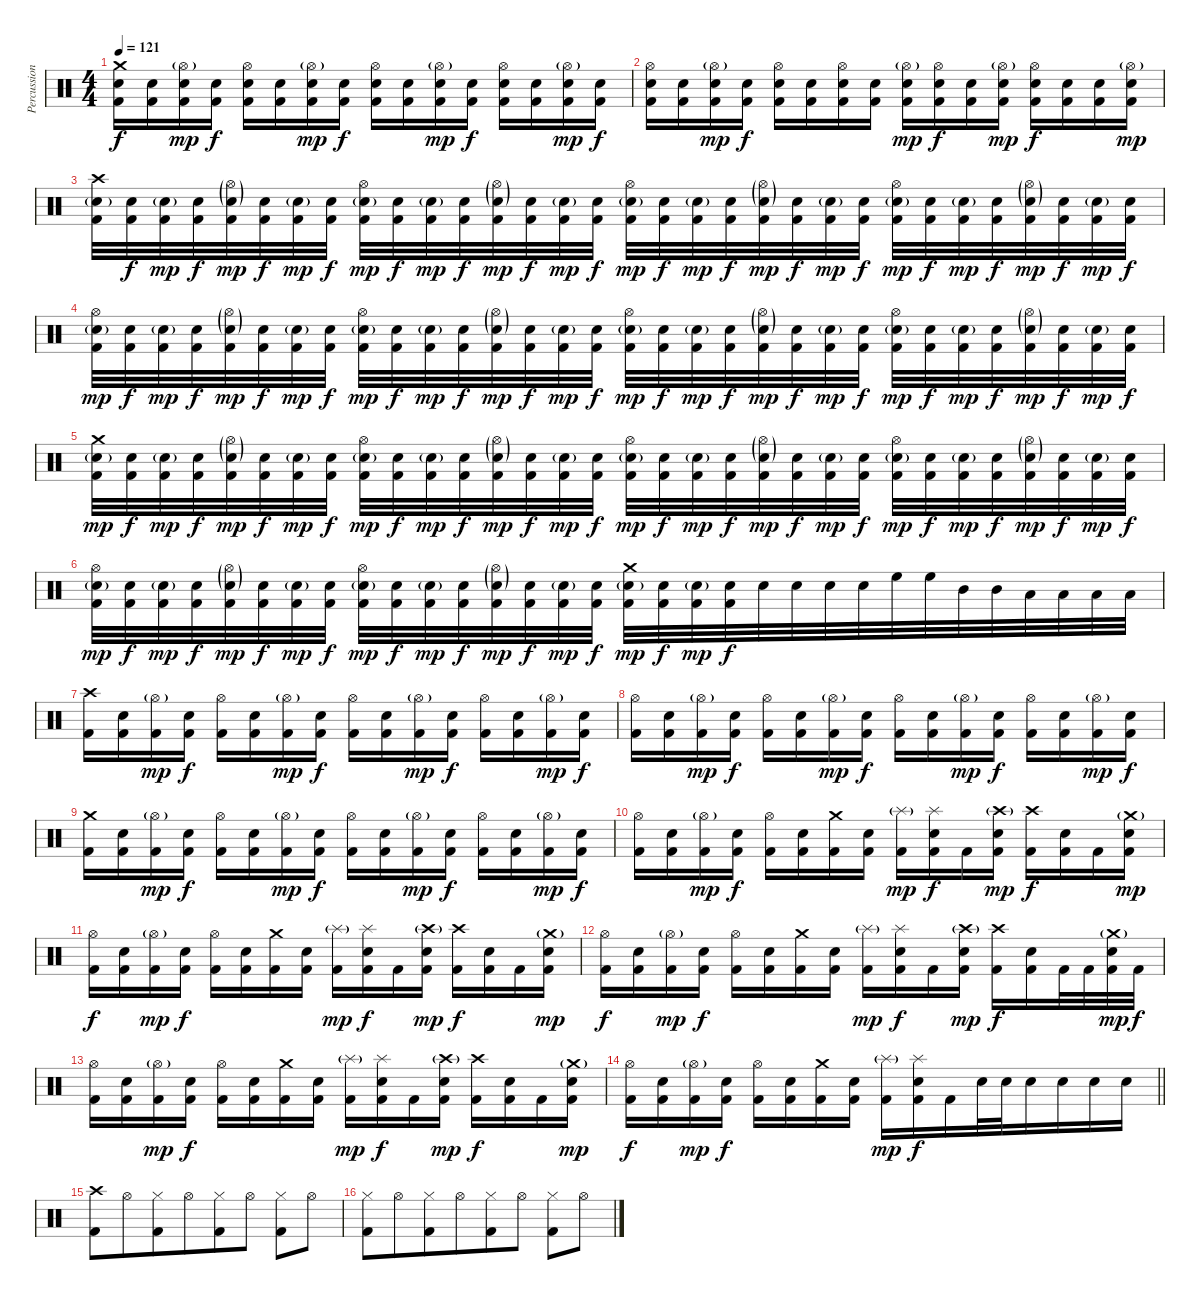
\track ("Percussion" "Percussion") {instrument percussion}
\staff {score}
\articulation defaults
\ts (4 4)
\tempo 121
\clef neutral
\ks c
("Crash medium (hit)" "Electric Snare (hit)" "Kick (hit) 2").16{dy f} ("Electric Snare (hit)" "Kick (hit) 2").16{beam merge} ("Hi-Hat (open)"{g} "Electric Snare (hit)" "Kick (hit) 2").16{dy mp beam merge} ("Electric Snare (hit)" "Kick (hit) 2").16{dy f} ("Hi-Hat (open)" "Electric Snare (hit)" "Kick (hit) 2").16 ("Electric Snare (hit)" "Kick (hit) 2").16 ("Hi-Hat (open)"{g} "Electric Snare (hit)" "Kick (hit) 2").16{dy mp beam merge} ("Electric Snare (hit)" "Kick (hit) 2").16{dy f} ("Hi-Hat (open)" "Electric Snare (hit)" "Kick (hit) 2").16 ("Electric Snare (hit)" "Kick (hit) 2").16{beam merge} ("Hi-Hat (open)"{g} "Electric Snare (hit)" "Kick (hit) 2").16{dy mp beam merge} ("Electric Snare (hit)" "Kick (hit) 2").16{dy f} ("Hi-Hat (open)" "Electric Snare (hit)" "Kick (hit) 2").16 ("Electric Snare (hit)" "Kick (hit) 2").16 ("Hi-Hat (open)"{g} "Electric Snare (hit)" "Kick (hit) 2").16{dy mp beam merge} ("Electric Snare (hit)" "Kick (hit) 2").16{dy f} |
("Hi-Hat (open)" "Electric Snare (hit)" "Kick (hit) 2").16 ("Electric Snare (hit)" "Kick (hit) 2").16{beam merge} ("Hi-Hat (open)"{g} "Electric Snare (hit)" "Kick (hit) 2").16{dy mp beam merge} ("Electric Snare (hit)" "Kick (hit) 2").16{dy f} ("Hi-Hat (open)" "Electric Snare (hit)" "Kick (hit) 2").16 ("Electric Snare (hit)" "Kick (hit) 2").16 ("Hi-Hat (open)" "Electric Snare (hit)" "Kick (hit) 2").16{beam merge} ("Electric Snare (hit)" "Kick (hit) 2").16 ("Hi-Hat (open)"{g} "Electric Snare (hit)" "Kick (hit) 2").16{dy mp} ("Hi-Hat (open)" "Electric Snare (hit)" "Kick (hit) 2").16{dy f beam merge} ("Electric Snare (hit)" "Kick (hit) 2").16{beam merge} ("Hi-Hat (open)"{g} "Electric Snare (hit)" "Kick (hit) 2").16{dy mp} ("Hi-Hat (open)" "Electric Snare (hit)" "Kick (hit) 2").16{dy f} ("Electric Snare (hit)" "Kick (hit) 2").16 ("Electric Snare (hit)" "Kick (hit) 2").16{beam merge} ("Hi-Hat (open)"{g} "Electric Snare (hit)" "Kick (hit) 2").16{dy mp} |
("Crash high (hit)" "Electric Snare (hit)"{g} "Kick (hit) 2").32 ("Electric Snare (hit)" "Kick (hit) 2").32{dy f} ("Electric Snare (hit)"{g} "Kick (hit) 2").32{dy mp} ("Electric Snare (hit)" "Kick (hit) 2").32{dy f beam merge} ("Hi-Hat (open)"{g} "Electric Snare (hit)"{g} "Kick (hit) 2").32{dy mp beam merge} ("Electric Snare (hit)" "Kick (hit) 2").32{dy f beam merge} ("Electric Snare (hit)"{g} "Kick (hit) 2").32{dy mp} ("Electric Snare (hit)" "Kick (hit) 2").32{dy f} ("Hi-Hat (open)" "Electric Snare (hit)"{g} "Kick (hit) 2").32{dy mp} ("Electric Snare (hit)" "Kick (hit) 2").32{dy f} ("Electric Snare (hit)"{g} "Kick (hit) 2").32{dy mp} ("Electric Snare (hit)" "Kick (hit) 2").32{dy f} ("Hi-Hat (open)"{g} "Electric Snare (hit)"{g} "Kick (hit) 2").32{dy mp} ("Electric Snare (hit)" "Kick (hit) 2").32{dy f beam merge} ("Electric Snare (hit)"{g} "Kick (hit) 2").32{dy mp} ("Electric Snare (hit)" "Kick (hit) 2").32{dy f} ("Hi-Hat (open)" "Electric Snare (hit)"{g} "Kick (hit) 2").32{dy mp} ("Electric Snare (hit)" "Kick (hit) 2").32{dy f} ("Electric Snare (hit)"{g} "Kick (hit) 2").32{dy mp} ("Electric Snare (hit)" "Kick (hit) 2").32{dy f beam merge} ("Hi-Hat (open)"{g} "Electric Snare (hit)"{g} "Kick (hit) 2").32{dy mp beam merge} ("Electric Snare (hit)" "Kick (hit) 2").32{dy f beam merge} ("Electric Snare (hit)"{g} "Kick (hit) 2").32{dy mp beam merge} ("Electric Snare (hit)" "Kick (hit) 2").32{dy f} ("Hi-Hat (open)" "Electric Snare (hit)"{g} "Kick (hit) 2").32{dy mp} ("Electric Snare (hit)" "Kick (hit) 2").32{dy f} ("Electric Snare (hit)"{g} "Kick (hit) 2").32{dy mp beam merge} ("Electric Snare (hit)" "Kick (hit) 2").32{dy f} ("Hi-Hat (open)"{g} "Electric Snare (hit)"{g} "Kick (hit) 2").32{dy mp beam merge} ("Electric Snare (hit)" "Kick (hit) 2").32{dy f beam merge} ("Electric Snare (hit)"{g} "Kick (hit) 2").32{dy mp beam merge} ("Electric Snare (hit)" "Kick (hit) 2").32{dy f} |
("Hi-Hat (open)" "Electric Snare (hit)"{g} "Kick (hit) 2").32{dy mp} ("Electric Snare (hit)" "Kick (hit) 2").32{dy f} ("Electric Snare (hit)"{g} "Kick (hit) 2").32{dy mp} ("Electric Snare (hit)" "Kick (hit) 2").32{dy f beam merge} ("Hi-Hat (open)"{g} "Electric Snare (hit)"{g} "Kick (hit) 2").32{dy mp beam merge} ("Electric Snare (hit)" "Kick (hit) 2").32{dy f beam merge} ("Electric Snare (hit)"{g} "Kick (hit) 2").32{dy mp} ("Electric Snare (hit)" "Kick (hit) 2").32{dy f} ("Hi-Hat (open)" "Electric Snare (hit)"{g} "Kick (hit) 2").32{dy mp} ("Electric Snare (hit)" "Kick (hit) 2").32{dy f} ("Electric Snare (hit)"{g} "Kick (hit) 2").32{dy mp} ("Electric Snare (hit)" "Kick (hit) 2").32{dy f} ("Hi-Hat (open)"{g} "Electric Snare (hit)"{g} "Kick (hit) 2").32{dy mp} ("Electric Snare (hit)" "Kick (hit) 2").32{dy f beam merge} ("Electric Snare (hit)"{g} "Kick (hit) 2").32{dy mp} ("Electric Snare (hit)" "Kick (hit) 2").32{dy f} ("Hi-Hat (open)" "Electric Snare (hit)"{g} "Kick (hit) 2").32{dy mp} ("Electric Snare (hit)" "Kick (hit) 2").32{dy f} ("Electric Snare (hit)"{g} "Kick (hit) 2").32{dy mp} ("Electric Snare (hit)" "Kick (hit) 2").32{dy f beam merge} ("Hi-Hat (open)"{g} "Electric Snare (hit)"{g} "Kick (hit) 2").32{dy mp beam merge} ("Electric Snare (hit)" "Kick (hit) 2").32{dy f beam merge} ("Electric Snare (hit)"{g} "Kick (hit) 2").32{dy mp beam merge} ("Electric Snare (hit)" "Kick (hit) 2").32{dy f} ("Hi-Hat (open)" "Electric Snare (hit)"{g} "Kick (hit) 2").32{dy mp} ("Electric Snare (hit)" "Kick (hit) 2").32{dy f} ("Electric Snare (hit)"{g} "Kick (hit) 2").32{dy mp beam merge} ("Electric Snare (hit)" "Kick (hit) 2").32{dy f} ("Hi-Hat (open)"{g} "Electric Snare (hit)"{g} "Kick (hit) 2").32{dy mp beam merge} ("Electric Snare (hit)" "Kick (hit) 2").32{dy f beam merge} ("Electric Snare (hit)"{g} "Kick (hit) 2").32{dy mp beam merge} ("Electric Snare (hit)" "Kick (hit) 2").32{dy f} |
("Crash medium (hit)" "Electric Snare (hit)"{g} "Kick (hit) 2").32{dy mp} ("Electric Snare (hit)" "Kick (hit) 2").32{dy f} ("Electric Snare (hit)"{g} "Kick (hit) 2").32{dy mp} ("Electric Snare (hit)" "Kick (hit) 2").32{dy f beam merge} ("Hi-Hat (open)"{g} "Electric Snare (hit)"{g} "Kick (hit) 2").32{dy mp beam merge} ("Electric Snare (hit)" "Kick (hit) 2").32{dy f beam merge} ("Electric Snare (hit)"{g} "Kick (hit) 2").32{dy mp} ("Electric Snare (hit)" "Kick (hit) 2").32{dy f} ("Hi-Hat (open)" "Electric Snare (hit)"{g} "Kick (hit) 2").32{dy mp} ("Electric Snare (hit)" "Kick (hit) 2").32{dy f} ("Electric Snare (hit)"{g} "Kick (hit) 2").32{dy mp} ("Electric Snare (hit)" "Kick (hit) 2").32{dy f} ("Hi-Hat (open)"{g} "Electric Snare (hit)"{g} "Kick (hit) 2").32{dy mp} ("Electric Snare (hit)" "Kick (hit) 2").32{dy f beam merge} ("Electric Snare (hit)"{g} "Kick (hit) 2").32{dy mp} ("Electric Snare (hit)" "Kick (hit) 2").32{dy f} ("Hi-Hat (open)" "Electric Snare (hit)"{g} "Kick (hit) 2").32{dy mp} ("Electric Snare (hit)" "Kick (hit) 2").32{dy f} ("Electric Snare (hit)"{g} "Kick (hit) 2").32{dy mp} ("Electric Snare (hit)" "Kick (hit) 2").32{dy f beam merge} ("Hi-Hat (open)"{g} "Electric Snare (hit)"{g} "Kick (hit) 2").32{dy mp beam merge} ("Electric Snare (hit)" "Kick (hit) 2").32{dy f beam merge} ("Electric Snare (hit)"{g} "Kick (hit) 2").32{dy mp beam merge} ("Electric Snare (hit)" "Kick (hit) 2").32{dy f} ("Hi-Hat (open)" "Electric Snare (hit)"{g} "Kick (hit) 2").32{dy mp} ("Electric Snare (hit)" "Kick (hit) 2").32{dy f} ("Electric Snare (hit)"{g} "Kick (hit) 2").32{dy mp beam merge} ("Electric Snare (hit)" "Kick (hit) 2").32{dy f} ("Hi-Hat (open)"{g} "Electric Snare (hit)"{g} "Kick (hit) 2").32{dy mp beam merge} ("Electric Snare (hit)" "Kick (hit) 2").32{dy f beam merge} ("Electric Snare (hit)"{g} "Kick (hit) 2").32{dy mp beam merge} ("Electric Snare (hit)" "Kick (hit) 2").32{dy f} |
("Hi-Hat (open)" "Electric Snare (hit)"{g} "Kick (hit) 2").32{dy mp} ("Electric Snare (hit)" "Kick (hit) 2").32{dy f} ("Electric Snare (hit)"{g} "Kick (hit) 2").32{dy mp} ("Electric Snare (hit)" "Kick (hit) 2").32{dy f beam merge} ("Hi-Hat (open)"{g} "Electric Snare (hit)"{g} "Kick (hit) 2").32{dy mp beam merge} ("Electric Snare (hit)" "Kick (hit) 2").32{dy f beam merge} ("Electric Snare (hit)"{g} "Kick (hit) 2").32{dy mp} ("Electric Snare (hit)" "Kick (hit) 2").32{dy f} ("Hi-Hat (open)" "Electric Snare (hit)"{g} "Kick (hit) 2").32{dy mp} ("Electric Snare (hit)" "Kick (hit) 2").32{dy f} ("Electric Snare (hit)"{g} "Kick (hit) 2").32{dy mp} ("Electric Snare (hit)" "Kick (hit) 2").32{dy f} ("Hi-Hat (open)"{g} "Electric Snare (hit)"{g} "Kick (hit) 2").32{dy mp} ("Electric Snare (hit)" "Kick (hit) 2").32{dy f beam merge} ("Electric Snare (hit)"{g} "Kick (hit) 2").32{dy mp} ("Electric Snare (hit)" "Kick (hit) 2").32{dy f} ("Crash medium (hit)" "Electric Snare (hit)"{g} "Kick (hit) 2").32{dy mp} ("Electric Snare (hit)" "Kick (hit) 2").32{dy f} ("Electric Snare (hit)"{g} "Kick (hit) 2").32{dy mp} ("Electric Snare (hit)" "Kick (hit) 2").32{dy f beam merge} "Electric Snare (hit)".32 "Electric Snare (hit)".32{beam merge} "Electric Snare (hit)".32 "Electric Snare (hit)".32{beam merge} "High Floor Tom (hit)".32 "High Floor Tom (hit)".32 "Mid Tom (hit)".32 "Mid Tom (hit)".32 "Low Floor Tom (hit)".32{beam merge} "Low Floor Tom (hit)".32 "Low Floor Tom (hit)".32 "Low Floor Tom (hit)".32 |
("Crash high (hit)" "Kick (hit) 2").16 ("Electric Snare (hit)" "Kick (hit) 2").16{beam merge} ("Hi-Hat (open)"{g} "Kick (hit) 2").16{dy mp beam merge} ("Electric Snare (hit)" "Kick (hit) 2").16{dy f} ("Hi-Hat (open)" "Kick (hit) 2").16 ("Electric Snare (hit)" "Kick (hit) 2").16 ("Hi-Hat (open)"{g} "Kick (hit) 2").16{dy mp beam merge} ("Electric Snare (hit)" "Kick (hit) 2").16{dy f} ("Hi-Hat (open)" "Kick (hit) 2").16 ("Electric Snare (hit)" "Kick (hit) 2").16{beam merge} ("Hi-Hat (open)"{g} "Kick (hit) 2").16{dy mp beam merge} ("Electric Snare (hit)" "Kick (hit) 2").16{dy f} ("Hi-Hat (open)" "Kick (hit) 2").16 ("Electric Snare (hit)" "Kick (hit) 2").16 ("Hi-Hat (open)"{g} "Kick (hit) 2").16{dy mp beam merge} ("Electric Snare (hit)" "Kick (hit) 2").16{dy f} |
("Hi-Hat (open)" "Kick (hit) 2").16 ("Electric Snare (hit)" "Kick (hit) 2").16{beam merge} ("Hi-Hat (open)"{g} "Kick (hit) 2").16{dy mp beam merge} ("Electric Snare (hit)" "Kick (hit) 2").16{dy f} ("Hi-Hat (open)" "Kick (hit) 2").16 ("Electric Snare (hit)" "Kick (hit) 2").16 ("Hi-Hat (open)"{g} "Kick (hit) 2").16{dy mp beam merge} ("Electric Snare (hit)" "Kick (hit) 2").16{dy f} ("Hi-Hat (open)" "Kick (hit) 2").16 ("Electric Snare (hit)" "Kick (hit) 2").16{beam merge} ("Hi-Hat (open)"{g} "Kick (hit) 2").16{dy mp beam merge} ("Electric Snare (hit)" "Kick (hit) 2").16{dy f} ("Hi-Hat (open)" "Kick (hit) 2").16 ("Electric Snare (hit)" "Kick (hit) 2").16 ("Hi-Hat (open)"{g} "Kick (hit) 2").16{dy mp beam merge} ("Electric Snare (hit)" "Kick (hit) 2").16{dy f} |
("Crash medium (hit)" "Kick (hit) 2").16 ("Electric Snare (hit)" "Kick (hit) 2").16{beam merge} ("Hi-Hat (open)"{g} "Kick (hit) 2").16{dy mp beam merge} ("Electric Snare (hit)" "Kick (hit) 2").16{dy f} ("Hi-Hat (open)" "Kick (hit) 2").16 ("Electric Snare (hit)" "Kick (hit) 2").16 ("Hi-Hat (open)"{g} "Kick (hit) 2").16{dy mp beam merge} ("Electric Snare (hit)" "Kick (hit) 2").16{dy f} ("Hi-Hat (open)" "Kick (hit) 2").16 ("Electric Snare (hit)" "Kick (hit) 2").16{beam merge} ("Hi-Hat (open)"{g} "Kick (hit) 2").16{dy mp beam merge} ("Electric Snare (hit)" "Kick (hit) 2").16{dy f} ("Hi-Hat (open)" "Kick (hit) 2").16 ("Electric Snare (hit)" "Kick (hit) 2").16 ("Hi-Hat (open)"{g} "Kick (hit) 2").16{dy mp beam merge} ("Electric Snare (hit)" "Kick (hit) 2").16{dy f} |
("Hi-Hat (open)" "Kick (hit) 2").16 ("Electric Snare (hit)" "Kick (hit) 2").16{beam merge} ("Hi-Hat (open)"{g} "Kick (hit) 2").16{dy mp beam merge} ("Electric Snare (hit)" "Kick (hit) 2").16{dy f} ("Hi-Hat (open)" "Kick (hit) 2").16 ("Electric Snare (hit)" "Kick (hit) 2").16 ("Crash medium (hit)" "Kick (hit) 2").16{beam merge} ("Electric Snare (hit)" "Kick (hit) 2").16 ("Splash (hit)"{g} "Kick (hit) 2").16{dy mp} ("Splash (hit)" "Electric Snare (hit)" "Kick (hit) 2").16{dy f beam merge} "Kick (hit) 2".16{beam merge} ("Crash high (hit)"{g} "Electric Snare (hit)" "Kick (hit) 2").16{dy mp} ("Crash high (hit)" "Kick (hit) 2").16{dy f} ("Electric Snare (hit)" "Kick (hit) 2").16 "Kick (hit) 2".16{beam merge} ("Crash medium (hit)"{g} "Electric Snare (hit)" "Kick (hit) 2").16{dy mp} |
("Hi-Hat (open)" "Kick (hit) 2").16{dy f} ("Electric Snare (hit)" "Kick (hit) 2").16{beam merge} ("Hi-Hat (open)"{g} "Kick (hit) 2").16{dy mp beam merge} ("Electric Snare (hit)" "Kick (hit) 2").16{dy f} ("Hi-Hat (open)" "Kick (hit) 2").16 ("Electric Snare (hit)" "Kick (hit) 2").16 ("Crash medium (hit)" "Kick (hit) 2").16{beam merge} ("Electric Snare (hit)" "Kick (hit) 2").16 ("Splash (hit)"{g} "Kick (hit) 2").16{dy mp} ("Splash (hit)" "Electric Snare (hit)" "Kick (hit) 2").16{dy f beam merge} "Kick (hit) 2".16{beam merge} ("Crash high (hit)"{g} "Electric Snare (hit)" "Kick (hit) 2").16{dy mp} ("Crash high (hit)" "Kick (hit) 2").16{dy f} ("Electric Snare (hit)" "Kick (hit) 2").16 "Kick (hit) 2".16{beam merge} ("Crash medium (hit)"{g} "Electric Snare (hit)" "Kick (hit) 2").16{dy mp} |
("Hi-Hat (open)" "Kick (hit) 2").16{dy f} ("Electric Snare (hit)" "Kick (hit) 2").16{beam merge} ("Hi-Hat (open)"{g} "Kick (hit) 2").16{dy mp beam merge} ("Electric Snare (hit)" "Kick (hit) 2").16{dy f} ("Hi-Hat (open)" "Kick (hit) 2").16 ("Electric Snare (hit)" "Kick (hit) 2").16 ("Crash medium (hit)" "Kick (hit) 2").16{beam merge} ("Electric Snare (hit)" "Kick (hit) 2").16 ("Splash (hit)"{g} "Kick (hit) 2").16{dy mp} ("Splash (hit)" "Electric Snare (hit)" "Kick (hit) 2").16{dy f beam merge} "Kick (hit) 2".16{beam merge} ("Crash high (hit)"{g} "Electric Snare (hit)" "Kick (hit) 2").16{dy mp} ("Crash high (hit)" "Kick (hit) 2").16{dy f} ("Electric Snare (hit)" "Kick (hit) 2").16 "Kick (hit) 2".32 "Kick (hit) 2".32{beam merge} ("Crash medium (hit)"{g} "Electric Snare (hit)" "Kick (hit) 2").32{dy mp} "Kick (hit) 2".32{dy f} |
("Hi-Hat (open)" "Kick (hit) 2").16 ("Electric Snare (hit)" "Kick (hit) 2").16{beam merge} ("Hi-Hat (open)"{g} "Kick (hit) 2").16{dy mp beam merge} ("Electric Snare (hit)" "Kick (hit) 2").16{dy f} ("Hi-Hat (open)" "Kick (hit) 2").16 ("Electric Snare (hit)" "Kick (hit) 2").16 ("Crash medium (hit)" "Kick (hit) 2").16{beam merge} ("Electric Snare (hit)" "Kick (hit) 2").16 ("Splash (hit)"{g} "Kick (hit) 2").16{dy mp} ("Splash (hit)" "Electric Snare (hit)" "Kick (hit) 2").16{dy f beam merge} "Kick (hit) 2".16{beam merge} ("Crash high (hit)"{g} "Electric Snare (hit)" "Kick (hit) 2").16{dy mp} ("Crash high (hit)" "Kick (hit) 2").16{dy f} ("Electric Snare (hit)" "Kick (hit) 2").16 "Kick (hit) 2".16{beam merge} ("Crash medium (hit)"{g} "Electric Snare (hit)" "Kick (hit) 2").16{dy mp} |
\barLineRight lightlight
("Hi-Hat (open)" "Kick (hit) 2").16{dy f} ("Electric Snare (hit)" "Kick (hit) 2").16{beam merge} ("Hi-Hat (open)"{g} "Kick (hit) 2").16{dy mp beam merge} ("Electric Snare (hit)" "Kick (hit) 2").16{dy f} ("Hi-Hat (open)" "Kick (hit) 2").16 ("Electric Snare (hit)" "Kick (hit) 2").16 ("Crash medium (hit)" "Kick (hit) 2").16{beam merge} ("Electric Snare (hit)" "Kick (hit) 2").16 ("Splash (hit)"{g} "Kick (hit) 2").16{dy mp} ("Splash (hit)" "Electric Snare (hit)" "Kick (hit) 2").16{dy f beam merge} "Kick (hit) 2".16 "Electric Snare (hit)".32 "Electric Snare (hit)".32{beam merge} "Electric Snare (hit)".16 "Electric Snare (hit)".16{beam merge} "Electric Snare (hit)".16 "Electric Snare (hit)".16 |
\section ("" "")
("Crash high (hit)" "Kick (hit) 2").8 "Hi-Hat (open)".8{beam merge} ("Hi-Hat (closed)" "Kick (hit) 2").8{beam merge} "Hi-Hat (open)".8{beam merge} ("Hi-Hat (closed)" "Kick (hit) 2").8 "Hi-Hat (open)".8 ("Hi-Hat (closed)" "Kick (hit) 2").8 "Hi-Hat (open)".8 |
("Hi-Hat (closed)" "Kick (hit) 2").8 "Hi-Hat (open)".8{beam merge} ("Hi-Hat (closed)" "Kick (hit) 2").8{beam merge} "Hi-Hat (open)".8{beam merge} ("Hi-Hat (closed)" "Kick (hit) 2").8 "Hi-Hat (open)".8 ("Hi-Hat (closed)" "Kick (hit) 2").8 "Hi-Hat (open)".8
